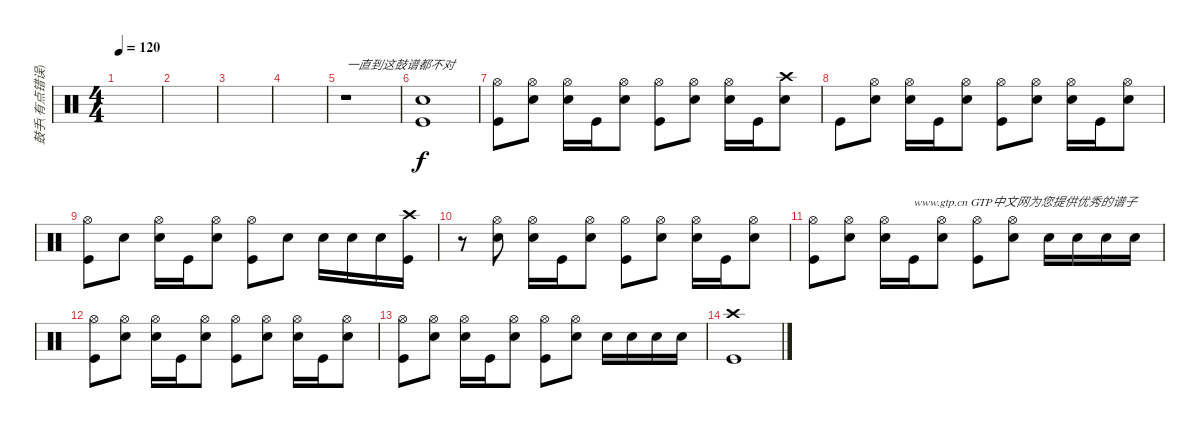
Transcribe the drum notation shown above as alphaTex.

\track ("鼓手(有点错误)" "鼓手(有点错误)") {instrument percussion}
\staff {score}
\articulation defaults
\ts (4 4)
\tempo 120
\clef neutral
\ks c
|
|
|
|
r.1{txt "一直到这鼓谱都不对"} |
("Electric Snare (hit)" "Kick (hit)").1 |
("Hi-Hat (open)" "Kick (hit)").8 ("Hi-Hat (open)" "Electric Snare (hit)").8 ("Hi-Hat (open)" "Snare (hit)").16 "Kick (hit)".16 ("Hi-Hat (open)" "Electric Snare (hit)").8 ("Hi-Hat (open)" "Kick (hit)").8 ("Hi-Hat (open)" "Electric Snare (hit)").8 ("Hi-Hat (open)" "Snare (hit)").16 "Kick (hit)".16 ("Crash high (hit)" "Electric Snare (hit)").8 |
"Kick (hit)".8 ("Hi-Hat (open)" "Electric Snare (hit)").8 ("Hi-Hat (open)" "Snare (hit)").16 "Kick (hit)".16 ("Hi-Hat (open)" "Electric Snare (hit)").8 ("Hi-Hat (open)" "Kick (hit)").8 ("Hi-Hat (open)" "Electric Snare (hit)").8 ("Hi-Hat (open)" "Snare (hit)").16 "Kick (hit)".16 ("Hi-Hat (open)" "Electric Snare (hit)").8 |
("Hi-Hat (open)" "Kick (hit)").8 "Electric Snare (hit)".8 ("Hi-Hat (open)" "Snare (hit)").16 "Kick (hit)".16 ("Hi-Hat (open)" "Electric Snare (hit)").8 ("Hi-Hat (open)" "Kick (hit)").8 "Electric Snare (hit)".8 "Electric Snare (hit)".16 "Electric Snare (hit)".16 "Electric Snare (hit)".16 ("Crash high (hit)" "Kick (hit)").16 |
r.8 ("Hi-Hat (open)" "Electric Snare (hit)").8 ("Hi-Hat (open)" "Snare (hit)").16 "Kick (hit)".16 ("Hi-Hat (open)" "Electric Snare (hit)").8 ("Hi-Hat (open)" "Kick (hit)").8 ("Hi-Hat (open)" "Electric Snare (hit)").8 ("Hi-Hat (open)" "Snare (hit)").16 "Kick (hit)".16 ("Hi-Hat (open)" "Electric Snare (hit)").8 |
("Hi-Hat (open)" "Kick (hit)").8 ("Hi-Hat (open)" "Electric Snare (hit)").8 ("Hi-Hat (open)" "Snare (hit)").16 "Kick (hit)".16{txt "www.gtp.cn GTP中文网为您提供优秀的谱子"} ("Hi-Hat (open)" "Electric Snare (hit)").8 ("Hi-Hat (open)" "Kick (hit)").8 ("Hi-Hat (open)" "Electric Snare (hit)").8 "Electric Snare (hit)".16 "Electric Snare (hit)".16 "Electric Snare (hit)".16 "Electric Snare (hit)".16 |
("Hi-Hat (open)" "Kick (hit)").8 ("Hi-Hat (open)" "Electric Snare (hit)").8 ("Hi-Hat (open)" "Snare (hit)").16 "Kick (hit)".16 ("Hi-Hat (open)" "Electric Snare (hit)").8 ("Hi-Hat (open)" "Kick (hit)").8 ("Hi-Hat (open)" "Electric Snare (hit)").8 ("Hi-Hat (open)" "Snare (hit)").16 "Kick (hit)".16 ("Hi-Hat (open)" "Electric Snare (hit)").8 |
("Hi-Hat (open)" "Kick (hit)").8 ("Hi-Hat (open)" "Electric Snare (hit)").8 ("Hi-Hat (open)" "Snare (hit)").16 "Kick (hit)".16 ("Hi-Hat (open)" "Electric Snare (hit)").8 ("Hi-Hat (open)" "Kick (hit)").8 ("Hi-Hat (open)" "Electric Snare (hit)").8 "Electric Snare (hit)".16 "Electric Snare (hit)".16 "Electric Snare (hit)".16 "Electric Snare (hit)".16 |
("Crash high (hit)" "Kick (hit)").1
